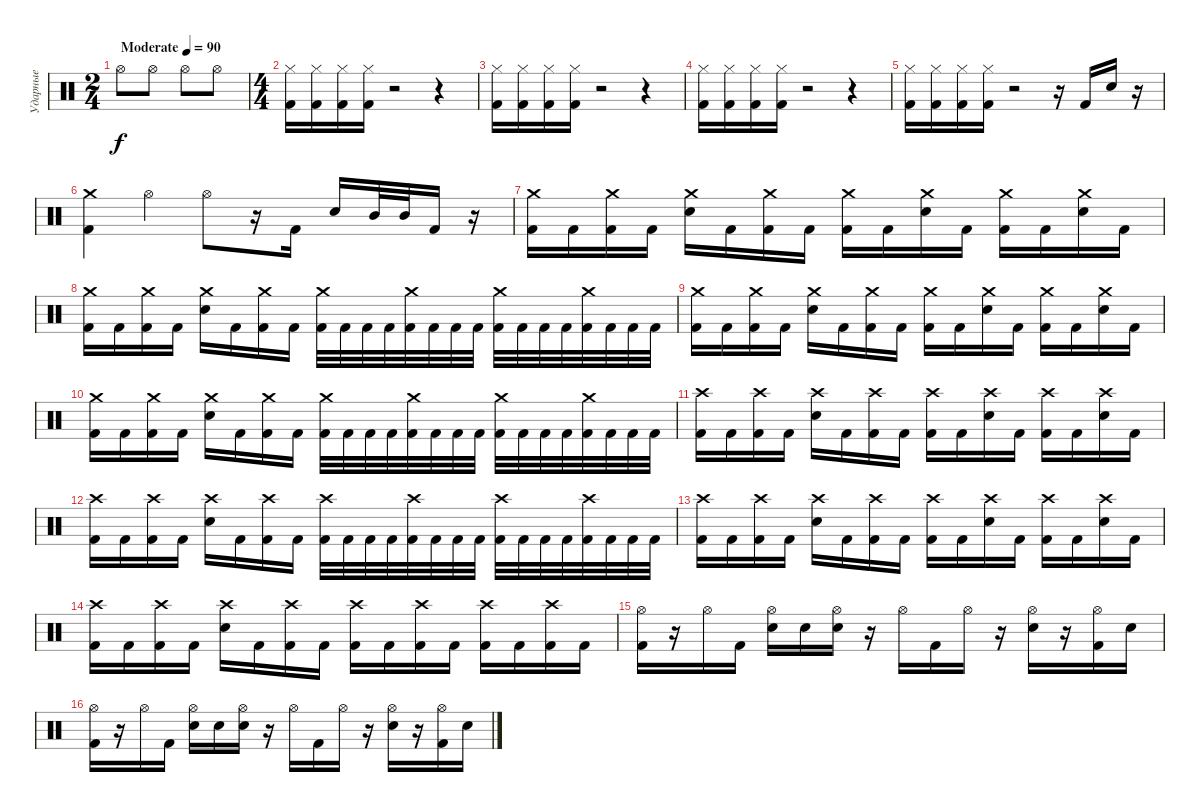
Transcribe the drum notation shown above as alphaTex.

\track ("Ударные" "Ударные") {instrument percussion}
\staff {score}
\articulation defaults
\ts (2 4)
\tempo (90 "Moderate")
\clef neutral
\ks c "Hi-Hat (open)".8{dy f} "Hi-Hat (open)".8 "Hi-Hat (open)".8 "Hi-Hat (open)".8
|
\ts (4 4)
("Hi-Hat (closed)" "Kick (hit) 2").16 ("Hi-Hat (closed)" "Kick (hit) 2").16 ("Hi-Hat (closed)" "Kick (hit) 2").16 ("Hi-Hat (closed)" "Kick (hit) 2").16 r.2 r.4 |
("Hi-Hat (closed)" "Kick (hit) 2").16 ("Hi-Hat (closed)" "Kick (hit) 2").16 ("Hi-Hat (closed)" "Kick (hit) 2").16 ("Hi-Hat (closed)" "Kick (hit) 2").16 r.2 r.4 |
("Hi-Hat (closed)" "Kick (hit) 2").16 ("Hi-Hat (closed)" "Kick (hit) 2").16 ("Hi-Hat (closed)" "Kick (hit) 2").16 ("Hi-Hat (closed)" "Kick (hit) 2").16 r.2 r.4 |
("Hi-Hat (closed)" "Kick (hit) 2").16 ("Hi-Hat (closed)" "Kick (hit) 2").16 ("Hi-Hat (closed)" "Kick (hit) 2").16 ("Hi-Hat (closed)" "Kick (hit) 2").16 r.2 r.16 "Kick (hit) 2".16 "Electric Snare (hit)".16 r.16 |
("Crash medium (hit)" "Kick (hit) 2").4 "Hi-Hat (open)".4 "Hi-Hat (open)".8 r.16 "Kick (hit) 2".16 "Electric Snare (hit)".16 "Mid Tom (hit)".32 "Mid Tom (hit)".32 "Kick (hit) 2".16 r.16 |
("Crash medium (hit)" "Kick (hit) 2").16 "Kick (hit) 2".16 ("Crash medium (hit)" "Kick (hit) 2").16 "Kick (hit) 2".16 ("Crash medium (hit)" "Electric Snare (hit)").16 "Kick (hit) 2".16 ("Crash medium (hit)" "Kick (hit) 2").16 "Kick (hit) 2".16 ("Crash medium (hit)" "Kick (hit) 2").16 "Kick (hit) 2".16 ("Crash medium (hit)" "Electric Snare (hit)").16 "Kick (hit) 2".16 ("Crash medium (hit)" "Kick (hit) 2").16 "Kick (hit) 2".16 ("Crash medium (hit)" "Electric Snare (hit)").16 "Kick (hit) 2".16 |
("Crash medium (hit)" "Kick (hit) 2").16 "Kick (hit) 2".16 ("Crash medium (hit)" "Kick (hit) 2").16 "Kick (hit) 2".16 ("Crash medium (hit)" "Electric Snare (hit)").16 "Kick (hit) 2".16 ("Crash medium (hit)" "Kick (hit) 2").16 "Kick (hit) 2".16 ("Crash medium (hit)" "Kick (hit) 2").32 "Kick (hit) 2".32 "Kick (hit) 2".32 "Kick (hit) 2".32 ("Crash medium (hit)" "Kick (hit) 2").32 "Kick (hit) 2".32 "Kick (hit) 2".32 "Kick (hit) 2".32 ("Crash medium (hit)" "Kick (hit) 2").32 "Kick (hit) 2".32 "Kick (hit) 2".32 "Kick (hit) 2".32 ("Crash medium (hit)" "Kick (hit) 2").32 "Kick (hit) 2".32 "Kick (hit) 2".32 "Kick (hit) 2".32 |
("Crash medium (hit)" "Kick (hit) 2").16 "Kick (hit) 2".16 ("Crash medium (hit)" "Kick (hit) 2").16 "Kick (hit) 2".16 ("Crash medium (hit)" "Electric Snare (hit)").16 "Kick (hit) 2".16 ("Crash medium (hit)" "Kick (hit) 2").16 "Kick (hit) 2".16 ("Crash medium (hit)" "Kick (hit) 2").16 "Kick (hit) 2".16 ("Crash medium (hit)" "Electric Snare (hit)").16 "Kick (hit) 2".16 ("Crash medium (hit)" "Kick (hit) 2").16 "Kick (hit) 2".16 ("Crash medium (hit)" "Electric Snare (hit)").16 "Kick (hit) 2".16 |
("Crash medium (hit)" "Kick (hit) 2").16 "Kick (hit) 2".16 ("Crash medium (hit)" "Kick (hit) 2").16 "Kick (hit) 2".16 ("Crash medium (hit)" "Electric Snare (hit)").16 "Kick (hit) 2".16 ("Crash medium (hit)" "Kick (hit) 2").16 "Kick (hit) 2".16 ("Crash medium (hit)" "Kick (hit) 2").32 "Kick (hit) 2".32 "Kick (hit) 2".32 "Kick (hit) 2".32 ("Crash medium (hit)" "Kick (hit) 2").32 "Kick (hit) 2".32 "Kick (hit) 2".32 "Kick (hit) 2".32 ("Crash medium (hit)" "Kick (hit) 2").32 "Kick (hit) 2".32 "Kick (hit) 2".32 "Kick (hit) 2".32 ("Crash medium (hit)" "Kick (hit) 2").32 "Kick (hit) 2".32 "Kick (hit) 2".32 "Kick (hit) 2".32 |
("Crash high (hit)" "Kick (hit) 2").16 "Kick (hit) 2".16 ("Crash high (hit)" "Kick (hit) 2").16 "Kick (hit) 2".16 ("Crash high (hit)" "Electric Snare (hit)").16 "Kick (hit) 2".16 ("Crash high (hit)" "Kick (hit) 2").16 "Kick (hit) 2".16 ("Crash high (hit)" "Kick (hit) 2").16 "Kick (hit) 2".16 ("Crash high (hit)" "Electric Snare (hit)").16 "Kick (hit) 2".16 ("Crash high (hit)" "Kick (hit) 2").16 "Kick (hit) 2".16 ("Crash high (hit)" "Electric Snare (hit)").16 "Kick (hit) 2".16 |
("Crash high (hit)" "Kick (hit) 2").16 "Kick (hit) 2".16 ("Crash high (hit)" "Kick (hit) 2").16 "Kick (hit) 2".16 ("Crash high (hit)" "Electric Snare (hit)").16 "Kick (hit) 2".16 ("Crash high (hit)" "Kick (hit) 2").16 "Kick (hit) 2".16 ("Crash high (hit)" "Kick (hit) 2").32 "Kick (hit) 2".32 "Kick (hit) 2".32 "Kick (hit) 2".32 ("Crash high (hit)" "Kick (hit) 2").32 "Kick (hit) 2".32 "Kick (hit) 2".32 "Kick (hit) 2".32 ("Crash high (hit)" "Kick (hit) 2").32 "Kick (hit) 2".32 "Kick (hit) 2".32 "Kick (hit) 2".32 ("Crash high (hit)" "Kick (hit) 2").32 "Kick (hit) 2".32 "Kick (hit) 2".32 "Kick (hit) 2".32 |
("Crash high (hit)" "Kick (hit) 2").16 "Kick (hit) 2".16 ("Crash high (hit)" "Kick (hit) 2").16 "Kick (hit) 2".16 ("Crash high (hit)" "Electric Snare (hit)").16 "Kick (hit) 2".16 ("Crash high (hit)" "Kick (hit) 2").16 "Kick (hit) 2".16 ("Crash high (hit)" "Kick (hit) 2").16 "Kick (hit) 2".16 ("Crash high (hit)" "Electric Snare (hit)").16 "Kick (hit) 2".16 ("Crash high (hit)" "Kick (hit) 2").16 "Kick (hit) 2".16 ("Crash high (hit)" "Electric Snare (hit)").16 "Kick (hit) 2".16 |
("Crash high (hit)" "Kick (hit) 2").16 "Kick (hit) 2".16 ("Crash high (hit)" "Kick (hit) 2").16 "Kick (hit) 2".16 ("Crash high (hit)" "Electric Snare (hit)").16 "Kick (hit) 2".16 ("Crash high (hit)" "Kick (hit) 2").16 "Kick (hit) 2".16 ("Crash high (hit)" "Kick (hit) 2").16 "Kick (hit) 2".16 ("Crash high (hit)" "Kick (hit) 2").16 "Kick (hit) 2".16 ("Crash high (hit)" "Kick (hit) 2").16 "Kick (hit) 2".16 ("Crash high (hit)" "Kick (hit) 2").16 "Kick (hit) 2".16 |
("Hi-Hat (open)" "Kick (hit) 2").16 r.16 "Hi-Hat (open)".16 "Kick (hit) 2".16 ("Hi-Hat (open)" "Electric Snare (hit)").16 "Electric Snare (hit)".16 ("Hi-Hat (open)" "Electric Snare (hit)").16 r.16 "Hi-Hat (open)".16 "Kick (hit) 2".16 "Hi-Hat (open)".16 r.16 ("Hi-Hat (open)" "Electric Snare (hit)").16 r.16 ("Hi-Hat (open)" "Kick (hit) 2").16 "Electric Snare (hit)".16 |
("Hi-Hat (open)" "Kick (hit) 2").16 r.16 "Hi-Hat (open)".16 "Kick (hit) 2".16 ("Hi-Hat (open)" "Electric Snare (hit)").16 "Electric Snare (hit)".16 ("Hi-Hat (open)" "Electric Snare (hit)").16 r.16 "Hi-Hat (open)".16 "Kick (hit) 2".16 "Hi-Hat (open)".16 r.16 ("Hi-Hat (open)" "Electric Snare (hit)").16 r.16 ("Hi-Hat (open)" "Kick (hit) 2").16 "Electric Snare (hit)".16
